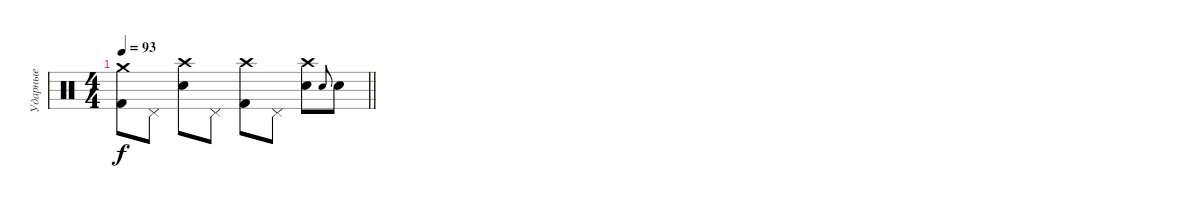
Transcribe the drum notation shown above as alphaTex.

\track ("Ударные" "Ударные") {instrument percussion}
\staff {score}
\articulation defaults
\ts (4 4)
\tempo 93
\clef neutral
\barLineRight lightlight
\ks c
("Crash medium (hit)" "Kick (hit) 2").8{dy f} "Pedal Hi-Hat (hit)".8 ("Crash high (hit)" "Electric Snare (hit)").8 "Pedal Hi-Hat (hit)".8 ("Kick (hit) 2" "Crash high (hit)").8 "Pedal Hi-Hat (hit)".8 ("Electric Snare (hit)" "Crash high (hit)").8 "Electric Snare (hit)".8{gr onbeat} "Electric Snare (hit)".8
